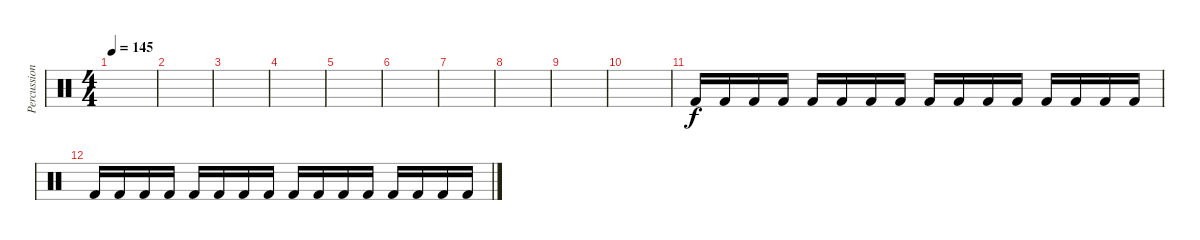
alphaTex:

\track ("Percussion" "Percussion") {instrument percussion}
\staff {score}
\articulation defaults
\ts (4 4)
\tempo 145
\clef neutral
\ks c
|
|
|
|
|
|
|
|
|
|
"Kick (hit) 2".16 "Kick (hit) 2".16 "Kick (hit) 2".16 "Kick (hit) 2".16 "Kick (hit) 2".16 "Kick (hit) 2".16 "Kick (hit) 2".16 "Kick (hit) 2".16 "Kick (hit) 2".16 "Kick (hit) 2".16 "Kick (hit) 2".16 "Kick (hit) 2".16 "Kick (hit) 2".16 "Kick (hit) 2".16 "Kick (hit) 2".16 "Kick (hit) 2".16 |
"Kick (hit) 2".16 "Kick (hit) 2".16 "Kick (hit) 2".16 "Kick (hit) 2".16 "Kick (hit) 2".16 "Kick (hit) 2".16 "Kick (hit) 2".16 "Kick (hit) 2".16 "Kick (hit) 2".16 "Kick (hit) 2".16 "Kick (hit) 2".16 "Kick (hit) 2".16 "Kick (hit) 2".16 "Kick (hit) 2".16 "Kick (hit) 2".16 "Kick (hit) 2".16
